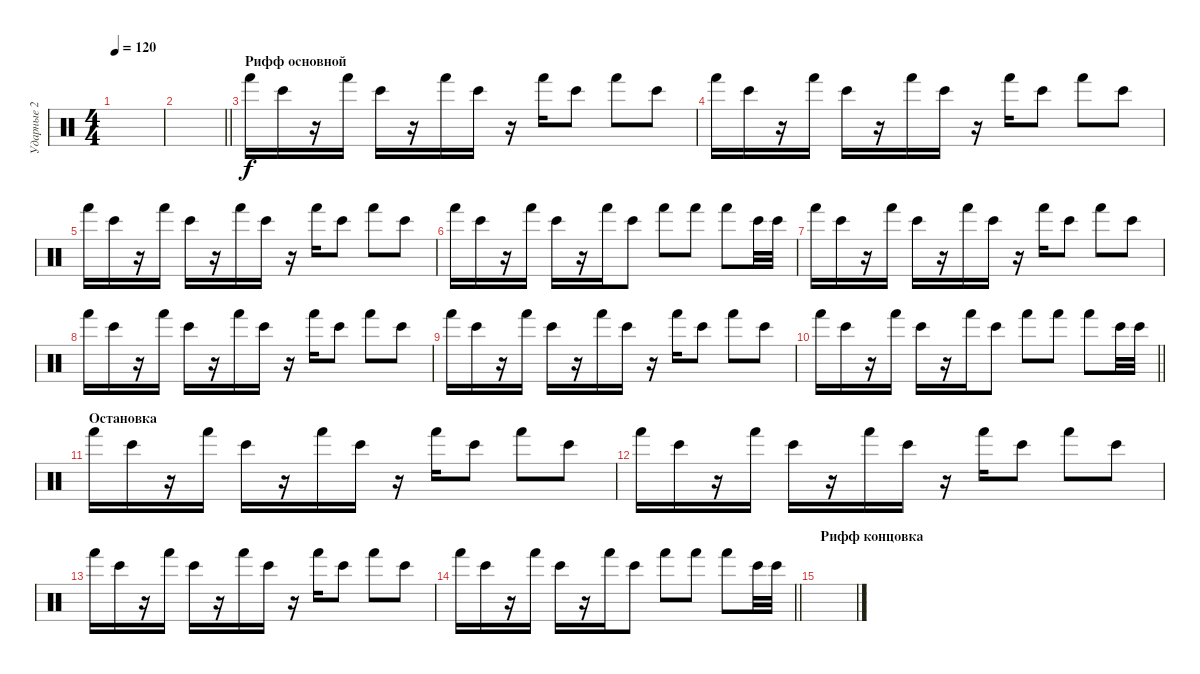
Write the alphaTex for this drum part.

\track ("Ударные 2" "Ударные 2") {instrument percussion}
\staff {score}
\articulation defaults
\ts (4 4)
\tempo 120
\clef neutral
\ks c
|
\barLineRight lightlight
|
\section ("" "Рифф основной")
"Hand (hit)".16 "Bongo High (hit)".16 r.16 "Hand (hit)".16 "Bongo High (hit)".16 r.16 "Hand (hit)".16 "Bongo High (hit)".16 r.16 "Hand (hit)".16 "Bongo High (hit)".8 "Hand (hit)".8 "Bongo High (hit)".8 |
"Hand (hit)".16 "Bongo High (hit)".16 r.16 "Hand (hit)".16 "Bongo High (hit)".16 r.16 "Hand (hit)".16 "Bongo High (hit)".16 r.16 "Hand (hit)".16 "Bongo High (hit)".8 "Hand (hit)".8 "Bongo High (hit)".8 |
"Hand (hit)".16 "Bongo High (hit)".16 r.16 "Hand (hit)".16 "Bongo High (hit)".16 r.16 "Hand (hit)".16 "Bongo High (hit)".16 r.16 "Hand (hit)".16 "Bongo High (hit)".8 "Hand (hit)".8 "Bongo High (hit)".8 |
"Hand (hit)".16 "Bongo High (hit)".16 r.16 "Hand (hit)".16 "Bongo High (hit)".16 r.16 "Hand (hit)".16 "Bongo High (hit)".8 "Hand (hit)".8 "Hand (hit)".8 "Hand (hit)".8 "Bongo High (hit)".32 "Bongo High (hit)".32 |
"Hand (hit)".16 "Bongo High (hit)".16 r.16 "Hand (hit)".16 "Bongo High (hit)".16 r.16 "Hand (hit)".16 "Bongo High (hit)".16 r.16 "Hand (hit)".16 "Bongo High (hit)".8 "Hand (hit)".8 "Bongo High (hit)".8 |
"Hand (hit)".16 "Bongo High (hit)".16 r.16 "Hand (hit)".16 "Bongo High (hit)".16 r.16 "Hand (hit)".16 "Bongo High (hit)".16 r.16 "Hand (hit)".16 "Bongo High (hit)".8 "Hand (hit)".8 "Bongo High (hit)".8 |
"Hand (hit)".16 "Bongo High (hit)".16 r.16 "Hand (hit)".16 "Bongo High (hit)".16 r.16 "Hand (hit)".16 "Bongo High (hit)".16 r.16 "Hand (hit)".16 "Bongo High (hit)".8 "Hand (hit)".8 "Bongo High (hit)".8 |
\barLineRight lightlight "Hand (hit)".16 "Bongo High (hit)".16
r.16 "Hand (hit)".16 "Bongo High (hit)".16 r.16 "Hand (hit)".16 "Bongo High (hit)".8 "Hand (hit)".8 "Hand (hit)".8 "Hand (hit)".8 "Bongo High (hit)".32 "Bongo High (hit)".32 |
\section ("" "Остановка")
"Hand (hit)".16 "Bongo High (hit)".16 r.16 "Hand (hit)".16 "Bongo High (hit)".16 r.16 "Hand (hit)".16 "Bongo High (hit)".16 r.16 "Hand (hit)".16 "Bongo High (hit)".8 "Hand (hit)".8 "Bongo High (hit)".8 |
"Hand (hit)".16 "Bongo High (hit)".16 r.16 "Hand (hit)".16 "Bongo High (hit)".16 r.16 "Hand (hit)".16 "Bongo High (hit)".16 r.16 "Hand (hit)".16 "Bongo High (hit)".8 "Hand (hit)".8 "Bongo High (hit)".8 |
"Hand (hit)".16 "Bongo High (hit)".16 r.16 "Hand (hit)".16 "Bongo High (hit)".16 r.16 "Hand (hit)".16 "Bongo High (hit)".16 r.16 "Hand (hit)".16 "Bongo High (hit)".8 "Hand (hit)".8 "Bongo High (hit)".8 |
\barLineRight lightlight "Hand (hit)".16 "Bongo High (hit)".16
r.16 "Hand (hit)".16 "Bongo High (hit)".16 r.16 "Hand (hit)".16 "Bongo High (hit)".8 "Hand (hit)".8 "Hand (hit)".8 "Hand (hit)".8 "Bongo High (hit)".32 "Bongo High (hit)".32 |
\section ("" "Рифф концовка")
